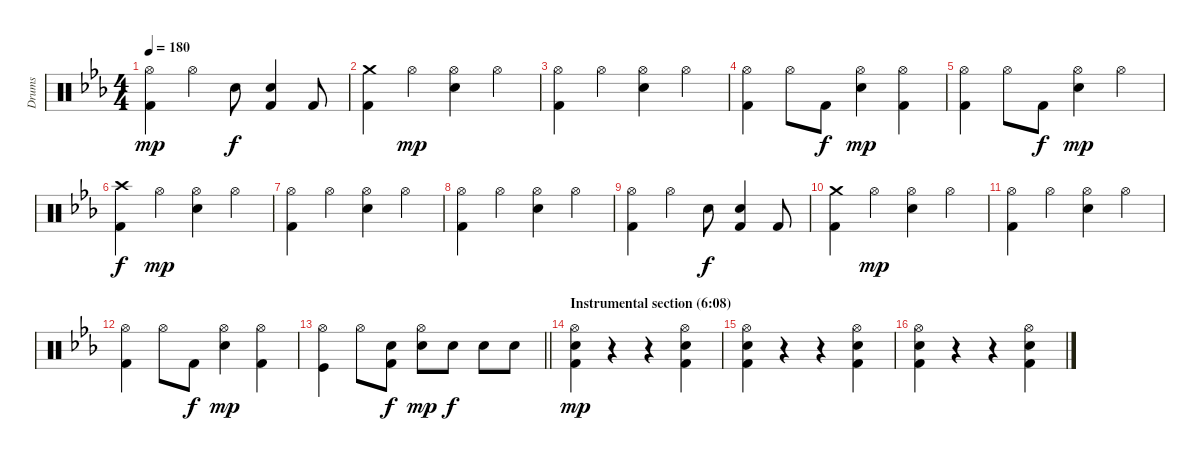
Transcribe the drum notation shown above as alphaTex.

\track ("Drums" "Drums") {instrument percussion}
\staff {score}
\articulation defaults
\ts (4 4)
\tempo 180
\clef neutral
\ks eb
("Hi-Hat (open)" "Kick (hit) 2").4{dy mp} "Hi-Hat (open)".4 "Electric Snare (hit)".8{dy f} ("Electric Snare (hit)" "Kick (hit) 2").4 "Kick (hit) 2".8 |
("Crash medium (hit)" "Kick (hit) 2").4 "Hi-Hat (open)".4{dy mp} ("Hi-Hat (open)" "Electric Snare (hit)").4 "Hi-Hat (open)".4 |
("Hi-Hat (open)" "Kick (hit) 2").4 "Hi-Hat (open)".4 ("Hi-Hat (open)" "Electric Snare (hit)").4 "Hi-Hat (open)".4 |
("Hi-Hat (open)" "Kick (hit) 2").4 "Hi-Hat (open)".8 "Kick (hit) 2".8{dy f} ("Hi-Hat (open)" "Electric Snare (hit)").4{dy mp} ("Hi-Hat (open)" "Kick (hit) 2").4 |
("Hi-Hat (open)" "Kick (hit) 2").4 "Hi-Hat (open)".8 "Kick (hit) 2".8{dy f} ("Hi-Hat (open)" "Electric Snare (hit)").4{dy mp} "Hi-Hat (open)".4 |
("Crash high (hit)" "Kick (hit) 2").4{dy f} "Hi-Hat (open)".4{dy mp} ("Hi-Hat (open)" "Electric Snare (hit)").4 "Hi-Hat (open)".4 |
("Hi-Hat (open)" "Kick (hit) 2").4 "Hi-Hat (open)".4 ("Hi-Hat (open)" "Electric Snare (hit)").4 "Hi-Hat (open)".4 |
("Hi-Hat (open)" "Kick (hit) 2").4 "Hi-Hat (open)".4 ("Hi-Hat (open)" "Electric Snare (hit)").4 "Hi-Hat (open)".4 |
("Hi-Hat (open)" "Kick (hit) 2").4 "Hi-Hat (open)".4 "Electric Snare (hit)".8{dy f} ("Electric Snare (hit)" "Kick (hit) 2").4 "Kick (hit) 2".8 |
("Crash medium (hit)" "Kick (hit) 2").4 "Hi-Hat (open)".4{dy mp} ("Hi-Hat (open)" "Electric Snare (hit)").4 "Hi-Hat (open)".4 |
("Hi-Hat (open)" "Kick (hit) 2").4 "Hi-Hat (open)".4 ("Hi-Hat (open)" "Electric Snare (hit)").4 "Hi-Hat (open)".4 |
("Hi-Hat (open)" "Kick (hit) 2").4 "Hi-Hat (open)".8 "Kick (hit) 2".8{dy f} ("Hi-Hat (open)" "Electric Snare (hit)").4{dy mp} ("Hi-Hat (open)" "Kick (hit) 2").4 |
\barLineRight lightlight
("Hi-Hat (open)" "Kick (hit)").4 "Hi-Hat (open)".8 ("Electric Snare (hit)" "Kick (hit) 2").8{dy f} ("Hi-Hat (open)" "Electric Snare (hit)").8{dy mp} "Electric Snare (hit)".8{dy f} "Electric Snare (hit)".8 "Electric Snare (hit)".8 |
\section ("" "Instrumental section (6:08)")
("Hi-Hat (open)" "Electric Snare (hit)" "Kick (hit) 2").4{dy mp} r.4 r.4 ("Hi-Hat (open)" "Electric Snare (hit)" "Kick (hit) 2").4 |
("Hi-Hat (open)" "Electric Snare (hit)" "Kick (hit) 2").4 r.4 r.4 ("Hi-Hat (open)" "Electric Snare (hit)" "Kick (hit) 2").4 |
("Hi-Hat (open)" "Electric Snare (hit)" "Kick (hit) 2").4 r.4 r.4 ("Hi-Hat (open)" "Electric Snare (hit)" "Kick (hit) 2").4
